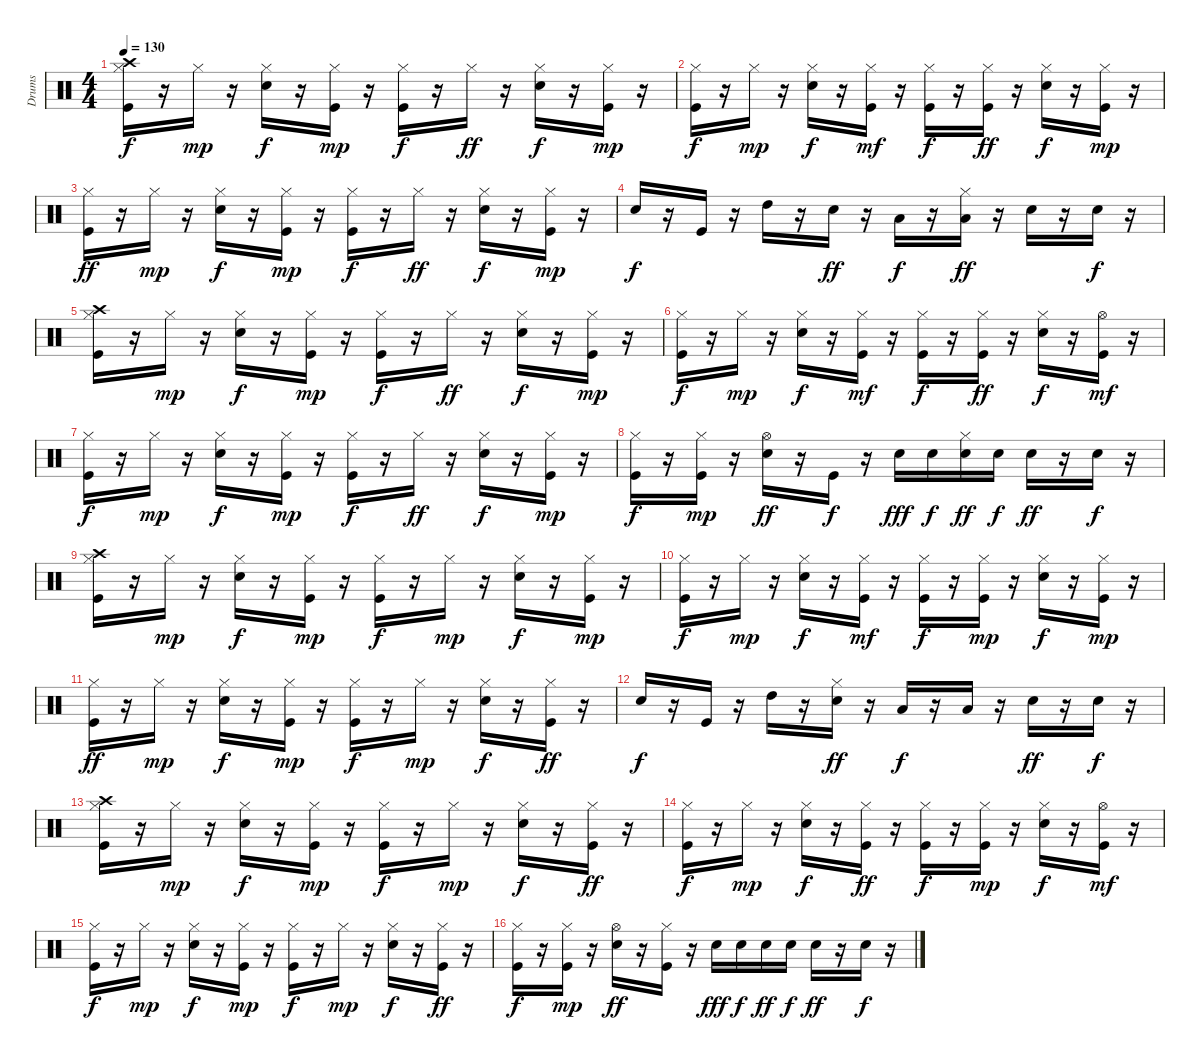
\track ("Drums" "Drums") {instrument percussion}
\staff {score}
\articulation defaults
\ts (4 4)
\tempo 130
\clef neutral
\ks c
("Kick (hit)" "Hi-Hat (closed)" "Crash high (hit)").16{dy f} r.16 "Hi-Hat (closed)".16{dy mp} r.16 ("Snare (hit) 2" "Hi-Hat (closed)").16{dy f} r.16 ("Kick (hit)" "Hi-Hat (closed)").16{dy mp} r.16 ("Kick (hit)" "Hi-Hat (closed)").16{dy f} r.16 "Hi-Hat (closed)".16{dy ff} r.16 ("Snare (hit) 2" "Hi-Hat (closed)").16{dy f} r.16 ("Kick (hit)" "Hi-Hat (closed)").16{dy mp} r.16 |
("Kick (hit)" "Hi-Hat (closed)").16{dy f} r.16 "Hi-Hat (closed)".16{dy mp} r.16 ("Snare (hit) 2" "Hi-Hat (closed)").16{dy f} r.16 ("Kick (hit)" "Hi-Hat (closed)").16{dy mf} r.16 ("Kick (hit)" "Hi-Hat (closed)").16{dy f} r.16 ("Kick (hit)" "Hi-Hat (closed)").16{dy ff} r.16 ("Snare (hit) 2" "Hi-Hat (closed)").16{dy f} r.16 ("Kick (hit)" "Hi-Hat (closed)").16{dy mp} r.16 |
("Kick (hit)" "Hi-Hat (closed)").16{dy ff} r.16 "Hi-Hat (closed)".16{dy mp} r.16 ("Snare (hit) 2" "Hi-Hat (closed)").16{dy f} r.16 ("Kick (hit)" "Hi-Hat (closed)").16{dy mp} r.16 ("Kick (hit)" "Hi-Hat (closed)").16{dy f} r.16 "Hi-Hat (closed)".16{dy ff} r.16 ("Snare (hit) 2" "Hi-Hat (closed)").16{dy f} r.16 ("Kick (hit)" "Hi-Hat (closed)").16{dy mp} r.16 |
"Snare (hit) 2".16{dy f} r.16 "Kick (hit)".16 r.16 "High Tom (hit)".16 r.16 "Snare (hit) 2".16{dy ff} r.16 "Low Tom (hit)".16{dy f} r.16 ("Hi-Hat (closed)" "Low Tom (hit)").16{dy ff} r.16 "Snare (hit) 2".16 r.16 "Snare (hit) 2".16{dy f} r.16 |
("Kick (hit)" "Hi-Hat (closed)" "Crash high (hit)").16 r.16 "Hi-Hat (closed)".16{dy mp} r.16 ("Snare (hit) 2" "Hi-Hat (closed)").16{dy f} r.16 ("Kick (hit)" "Hi-Hat (closed)").16{dy mp} r.16 ("Kick (hit)" "Hi-Hat (closed)").16{dy f} r.16 "Hi-Hat (closed)".16{dy ff} r.16 ("Snare (hit) 2" "Hi-Hat (closed)").16{dy f} r.16 ("Kick (hit)" "Hi-Hat (closed)").16{dy mp} r.16 |
("Kick (hit)" "Hi-Hat (closed)").16{dy f} r.16 "Hi-Hat (closed)".16{dy mp} r.16 ("Snare (hit) 2" "Hi-Hat (closed)").16{dy f} r.16 ("Kick (hit)" "Hi-Hat (closed)").16{dy mf} r.16 ("Kick (hit)" "Hi-Hat (closed)").16{dy f} r.16 ("Kick (hit)" "Hi-Hat (closed)").16{dy ff} r.16 ("Snare (hit) 2" "Hi-Hat (closed)").16{dy f} r.16 ("Kick (hit)" "Hi-Hat (open)").16{dy mf} r.16 |
("Kick (hit)" "Hi-Hat (closed)").16{dy f} r.16 "Hi-Hat (closed)".16{dy mp} r.16 ("Snare (hit) 2" "Hi-Hat (closed)").16{dy f} r.16 ("Kick (hit)" "Hi-Hat (closed)").16{dy mp} r.16 ("Kick (hit)" "Hi-Hat (closed)").16{dy f} r.16 "Hi-Hat (closed)".16{dy ff} r.16 ("Snare (hit) 2" "Hi-Hat (closed)").16{dy f} r.16 ("Kick (hit)" "Hi-Hat (closed)").16{dy mp} r.16 |
("Kick (hit)" "Hi-Hat (closed)").16{dy f} r.16 ("Kick (hit)" "Hi-Hat (closed)").16{dy mp} r.16 ("Snare (hit) 2" "Hi-Hat (open)").16{dy ff} r.16 "Kick (hit)".16{dy f} r.16 "Snare (hit) 2".16{dy fff} "Snare (hit) 2".16{dy f} ("Snare (hit) 2" "Hi-Hat (closed)").16{dy ff} "Snare (hit) 2".16{dy f} "Snare (hit) 2".16{dy ff} r.16 "Snare (hit) 2".16{dy f} r.16 |
("Kick (hit)" "Hi-Hat (closed)" "Crash high (hit)").16 r.16 "Hi-Hat (closed)".16{dy mp} r.16 ("Snare (hit) 2" "Hi-Hat (closed)").16{dy f} r.16 ("Kick (hit)" "Hi-Hat (closed)").16{dy mp} r.16 ("Kick (hit)" "Hi-Hat (closed)").16{dy f} r.16 "Hi-Hat (closed)".16{dy mp} r.16 ("Snare (hit) 2" "Hi-Hat (closed)").16{dy f} r.16 ("Kick (hit)" "Hi-Hat (closed)").16{dy mp} r.16 |
("Kick (hit)" "Hi-Hat (closed)").16{dy f} r.16 "Hi-Hat (closed)".16{dy mp} r.16 ("Snare (hit) 2" "Hi-Hat (closed)").16{dy f} r.16 ("Kick (hit)" "Hi-Hat (closed)").16{dy mf} r.16 ("Kick (hit)" "Hi-Hat (closed)").16{dy f} r.16 ("Kick (hit)" "Hi-Hat (closed)").16{dy mp} r.16 ("Snare (hit) 2" "Hi-Hat (closed)").16{dy f} r.16 ("Kick (hit)" "Hi-Hat (closed)").16{dy mp} r.16 |
("Kick (hit)" "Hi-Hat (closed)").16{dy ff} r.16 "Hi-Hat (closed)".16{dy mp} r.16 ("Snare (hit) 2" "Hi-Hat (closed)").16{dy f} r.16 ("Kick (hit)" "Hi-Hat (closed)").16{dy mp} r.16 ("Kick (hit)" "Hi-Hat (closed)").16{dy f} r.16 "Hi-Hat (closed)".16{dy mp} r.16 ("Snare (hit) 2" "Hi-Hat (closed)").16{dy f} r.16 ("Kick (hit)" "Hi-Hat (closed)").16{dy ff} r.16 |
"Snare (hit) 2".16{dy f} r.16 "Kick (hit)".16 r.16 "High Tom (hit)".16 r.16 ("Snare (hit) 2" "Hi-Hat (closed)").16{dy ff} r.16 "Low Tom (hit)".16{dy f} r.16 "Low Tom (hit)".16 r.16 "Snare (hit) 2".16{dy ff} r.16 "Snare (hit) 2".16{dy f} r.16 |
("Kick (hit)" "Hi-Hat (closed)" "Crash high (hit)").16 r.16 "Hi-Hat (closed)".16{dy mp} r.16 ("Snare (hit) 2" "Hi-Hat (closed)").16{dy f} r.16 ("Kick (hit)" "Hi-Hat (closed)").16{dy mp} r.16 ("Kick (hit)" "Hi-Hat (closed)").16{dy f} r.16 "Hi-Hat (closed)".16{dy mp} r.16 ("Snare (hit) 2" "Hi-Hat (closed)").16{dy f} r.16 ("Kick (hit)" "Hi-Hat (closed)").16{dy ff} r.16 |
("Kick (hit)" "Hi-Hat (closed)").16{dy f} r.16 "Hi-Hat (closed)".16{dy mp} r.16 ("Snare (hit) 2" "Hi-Hat (closed)").16{dy f} r.16 ("Kick (hit)" "Hi-Hat (closed)").16{dy ff} r.16 ("Kick (hit)" "Hi-Hat (closed)").16{dy f} r.16 ("Kick (hit)" "Hi-Hat (closed)").16{dy mp} r.16 ("Snare (hit) 2" "Hi-Hat (closed)").16{dy f} r.16 ("Kick (hit)" "Hi-Hat (open)").16{dy mf} r.16 |
("Kick (hit)" "Hi-Hat (closed)").16{dy f} r.16 "Hi-Hat (closed)".16{dy mp} r.16 ("Snare (hit) 2" "Hi-Hat (closed)").16{dy f} r.16 ("Kick (hit)" "Hi-Hat (closed)").16{dy mp} r.16 ("Kick (hit)" "Hi-Hat (closed)").16{dy f} r.16 "Hi-Hat (closed)".16{dy mp} r.16 ("Snare (hit) 2" "Hi-Hat (closed)").16{dy f} r.16 ("Kick (hit)" "Hi-Hat (closed)").16{dy ff} r.16 |
("Kick (hit)" "Hi-Hat (closed)").16{dy f} r.16 ("Kick (hit)" "Hi-Hat (closed)").16{dy mp} r.16 ("Snare (hit) 2" "Hi-Hat (open)").16{dy ff} r.16 ("Kick (hit)" "Hi-Hat (closed)").16 r.16 "Snare (hit) 2".16{dy fff} "Snare (hit) 2".16{dy f} "Snare (hit) 2".16{dy ff} "Snare (hit) 2".16{dy f} "Snare (hit) 2".16{dy ff} r.16 "Snare (hit) 2".16{dy f} r.16
